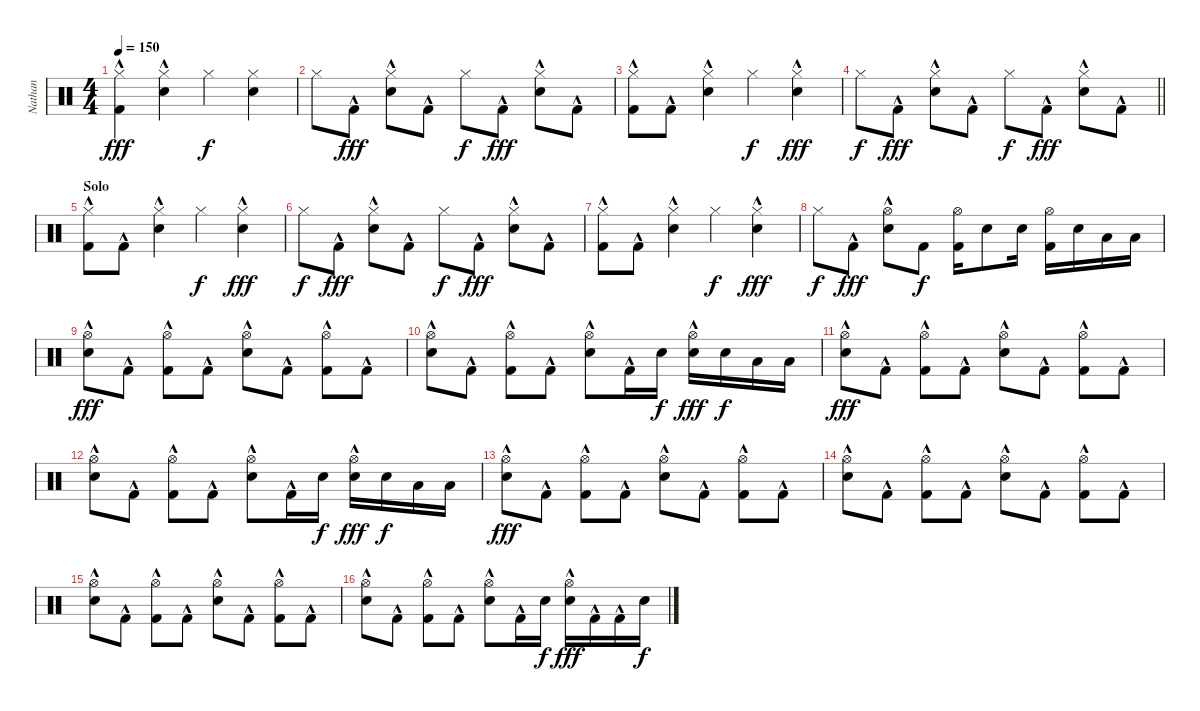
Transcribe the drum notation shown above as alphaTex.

\track ("Nathan" "Nathan") {instrument percussion}
\staff {score}
\articulation defaults
\ts (4 4)
\tempo 150
\clef neutral
\ks c
("Hi-Hat (closed)" "Kick (hit) 2"{hac}).4{dy fff} ("Hi-Hat (closed)" "Snare (hit) 2"{hac}).4 "Hi-Hat (closed)".4{dy f} ("Hi-Hat (closed)" "Snare (hit) 2").4 |
"Hi-Hat (closed)".8 "Kick (hit) 2"{hac}.8{dy fff} ("Hi-Hat (closed)" "Snare (hit) 2"{hac}).8 "Kick (hit) 2"{hac}.8 "Hi-Hat (closed)".8{dy f} "Kick (hit) 2"{hac}.8{dy fff} ("Hi-Hat (closed)" "Snare (hit) 2"{hac}).8 "Kick (hit) 2"{hac}.8 |
("Hi-Hat (closed)" "Kick (hit) 2"{hac}).8 "Kick (hit) 2"{hac}.8 ("Hi-Hat (closed)" "Snare (hit) 2"{hac}).4 "Hi-Hat (closed)".4{dy f} ("Hi-Hat (closed)" "Snare (hit) 2"{hac}).4{dy fff} |
\barLineRight lightlight "Hi-Hat (closed)".8{dy f} "Kick (hit) 2"{hac}.8{dy fff}
("Hi-Hat (closed)" "Snare (hit) 2"{hac}).8 "Kick (hit) 2"{hac}.8 "Hi-Hat (closed)".8{dy f} "Kick (hit) 2"{hac}.8{dy fff} ("Hi-Hat (closed)" "Snare (hit) 2"{hac}).8 "Kick (hit) 2"{hac}.8 |
\section ("" "Solo")
("Hi-Hat (closed)" "Kick (hit) 2"{hac}).8 "Kick (hit) 2"{hac}.8 ("Hi-Hat (closed)" "Snare (hit) 2"{hac}).4 "Hi-Hat (closed)".4{dy f} ("Hi-Hat (closed)" "Snare (hit) 2"{hac}).4{dy fff} |
"Hi-Hat (closed)".8{dy f} "Kick (hit) 2"{hac}.8{dy fff} ("Hi-Hat (closed)" "Snare (hit) 2"{hac}).8 "Kick (hit) 2"{hac}.8 "Hi-Hat (closed)".8{dy f} "Kick (hit) 2"{hac}.8{dy fff} ("Hi-Hat (closed)" "Snare (hit) 2"{hac}).8 "Kick (hit) 2"{hac}.8 |
("Hi-Hat (closed)" "Kick (hit) 2"{hac}).8 "Kick (hit) 2"{hac}.8 ("Hi-Hat (closed)" "Snare (hit) 2"{hac}).4 "Hi-Hat (closed)".4{dy f} ("Hi-Hat (closed)" "Snare (hit) 2"{hac}).4{dy fff} |
"Hi-Hat (closed)".8{dy f} "Kick (hit) 2"{hac}.8{dy fff} ("Hi-Hat (open)" "Snare (hit) 2"{hac}).8 "Kick (hit) 2".8{dy f} ("Hi-Hat (open)" "Kick (hit) 2").16 "Snare (hit) 2".8 "Snare (hit) 2".16 ("Hi-Hat (open)" "Kick (hit) 2").16 "Snare (hit) 2".16 "Low Tom (hit)".16 "Low Tom (hit)".16 |
("Hi-Hat (open)"{hac} "Snare (hit) 2"{hac}).8{dy fff} "Kick (hit) 2"{hac}.8 ("Hi-Hat (open)"{hac} "Kick (hit) 2"{hac}).8 "Kick (hit) 2"{hac}.8 ("Hi-Hat (open)"{hac} "Snare (hit) 2"{hac}).8 "Kick (hit) 2"{hac}.8 ("Hi-Hat (open)"{hac} "Kick (hit) 2"{hac}).8 "Kick (hit) 2"{hac}.8 |
("Hi-Hat (open)"{hac} "Snare (hit) 2"{hac}).8 "Kick (hit) 2"{hac}.8 ("Hi-Hat (open)"{hac} "Kick (hit) 2"{hac}).8 "Kick (hit) 2"{hac}.8 ("Hi-Hat (open)"{hac} "Snare (hit) 2"{hac}).8 "Kick (hit) 2"{hac}.16 "Snare (hit) 2".16{dy f} ("Hi-Hat (open)"{hac} "Snare (hit) 2").16{dy fff} "Snare (hit) 2".16{dy f} "Low Tom (hit)".16 "Low Tom (hit)".16 |
("Hi-Hat (open)"{hac} "Snare (hit) 2"{hac}).8{dy fff} "Kick (hit) 2"{hac}.8 ("Hi-Hat (open)"{hac} "Kick (hit) 2"{hac}).8 "Kick (hit) 2"{hac}.8 ("Hi-Hat (open)"{hac} "Snare (hit) 2"{hac}).8 "Kick (hit) 2"{hac}.8 ("Hi-Hat (open)"{hac} "Kick (hit) 2"{hac}).8 "Kick (hit) 2"{hac}.8 |
("Hi-Hat (open)"{hac} "Snare (hit) 2"{hac}).8 "Kick (hit) 2"{hac}.8 ("Hi-Hat (open)"{hac} "Kick (hit) 2"{hac}).8 "Kick (hit) 2"{hac}.8 ("Hi-Hat (open)"{hac} "Snare (hit) 2"{hac}).8 "Kick (hit) 2"{hac}.16 "Snare (hit) 2".16{dy f} ("Hi-Hat (open)"{hac} "Snare (hit) 2").16{dy fff} "Snare (hit) 2".16{dy f} "Low Tom (hit)".16 "Low Tom (hit)".16 |
("Hi-Hat (open)"{hac} "Snare (hit) 2"{hac}).8{dy fff} "Kick (hit) 2"{hac}.8 ("Hi-Hat (open)"{hac} "Kick (hit) 2"{hac}).8 "Kick (hit) 2"{hac}.8 ("Hi-Hat (open)"{hac} "Snare (hit) 2"{hac}).8 "Kick (hit) 2"{hac}.8 ("Hi-Hat (open)"{hac} "Kick (hit) 2"{hac}).8 "Kick (hit) 2"{hac}.8 |
("Hi-Hat (open)"{hac} "Snare (hit) 2"{hac}).8 "Kick (hit) 2"{hac}.8 ("Hi-Hat (open)"{hac} "Kick (hit) 2"{hac}).8 "Kick (hit) 2"{hac}.8 ("Hi-Hat (open)"{hac} "Snare (hit) 2"{hac}).8 "Kick (hit) 2"{hac}.8 ("Hi-Hat (open)"{hac} "Kick (hit) 2"{hac}).8 "Kick (hit) 2"{hac}.8 |
("Hi-Hat (open)"{hac} "Snare (hit) 2"{hac}).8 "Kick (hit) 2"{hac}.8 ("Hi-Hat (open)"{hac} "Kick (hit) 2"{hac}).8 "Kick (hit) 2"{hac}.8 ("Hi-Hat (open)"{hac} "Snare (hit) 2"{hac}).8 "Kick (hit) 2"{hac}.8 ("Hi-Hat (open)"{hac} "Kick (hit) 2"{hac}).8 "Kick (hit) 2"{hac}.8 |
("Hi-Hat (open)"{hac} "Snare (hit) 2"{hac}).8 "Kick (hit) 2"{hac}.8 ("Hi-Hat (open)"{hac} "Kick (hit) 2"{hac}).8 "Kick (hit) 2"{hac}.8 ("Hi-Hat (open)"{hac} "Snare (hit) 2"{hac}).8 "Kick (hit) 2"{hac}.16 "Snare (hit) 2".16{dy f} ("Hi-Hat (open)"{hac} "Snare (hit) 2").16{dy fff} "Kick (hit) 2"{hac}.16 "Kick (hit) 2"{hac}.16 "Snare (hit) 2".16{dy f}
